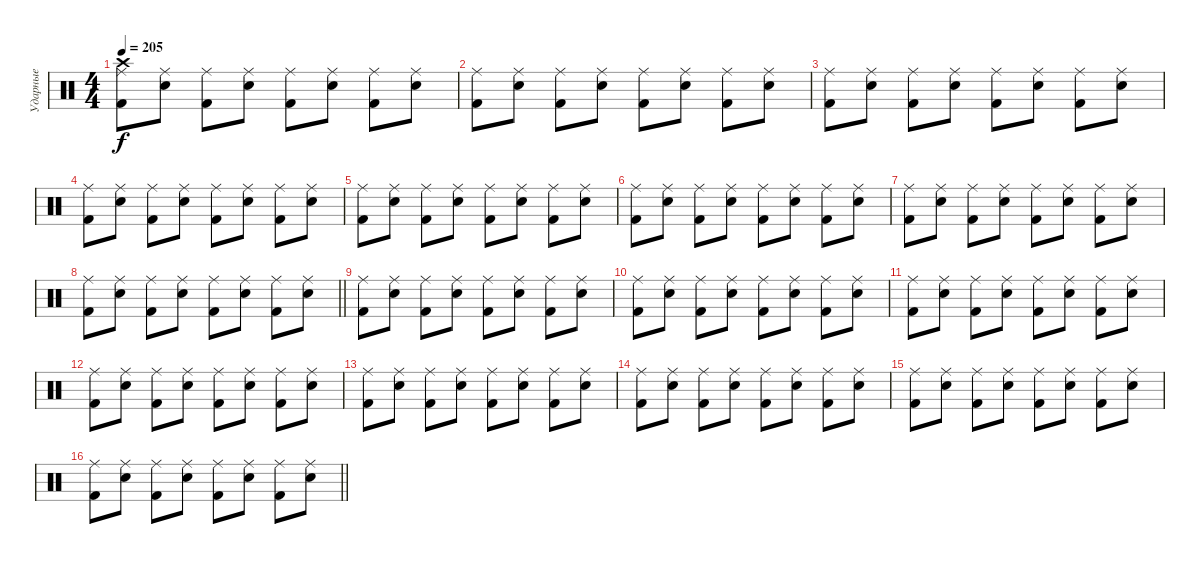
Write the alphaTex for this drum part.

\track ("Ударные" "Ударные") {instrument percussion}
\staff {score}
\articulation defaults
\ts (4 4)
\tempo 205
\clef neutral
\ks c
("Crash high (hit)" "Ride (middle)" "Kick (hit) 2").8{dy f} ("Ride (middle)" "Snare (hit) 2").8 ("Ride (middle)" "Kick (hit) 2").8 ("Ride (middle)" "Snare (hit) 2").8 ("Ride (middle)" "Kick (hit) 2").8 ("Ride (middle)" "Snare (hit) 2").8 ("Ride (middle)" "Kick (hit) 2").8 ("Ride (middle)" "Snare (hit) 2").8 |
("Ride (middle)" "Kick (hit) 2").8 ("Ride (middle)" "Snare (hit) 2").8 ("Ride (middle)" "Kick (hit) 2").8 ("Ride (middle)" "Snare (hit) 2").8 ("Ride (middle)" "Kick (hit) 2").8 ("Ride (middle)" "Snare (hit) 2").8 ("Ride (middle)" "Kick (hit) 2").8 ("Ride (middle)" "Snare (hit) 2").8 |
("Ride (middle)" "Kick (hit) 2").8 ("Ride (middle)" "Snare (hit) 2").8 ("Ride (middle)" "Kick (hit) 2").8 ("Ride (middle)" "Snare (hit) 2").8 ("Ride (middle)" "Kick (hit) 2").8 ("Ride (middle)" "Snare (hit) 2").8 ("Ride (middle)" "Kick (hit) 2").8 ("Ride (middle)" "Snare (hit) 2").8 |
("Ride (middle)" "Kick (hit) 2").8 ("Ride (middle)" "Snare (hit) 2").8 ("Ride (middle)" "Kick (hit) 2").8 ("Ride (middle)" "Snare (hit) 2").8 ("Ride (middle)" "Kick (hit) 2").8 ("Ride (middle)" "Snare (hit) 2").8 ("Ride (middle)" "Kick (hit) 2").8 ("Ride (middle)" "Snare (hit) 2").8 |
("Ride (middle)" "Kick (hit) 2").8 ("Ride (middle)" "Snare (hit) 2").8 ("Ride (middle)" "Kick (hit) 2").8 ("Ride (middle)" "Snare (hit) 2").8 ("Ride (middle)" "Kick (hit) 2").8 ("Ride (middle)" "Snare (hit) 2").8 ("Ride (middle)" "Kick (hit) 2").8 ("Ride (middle)" "Snare (hit) 2").8 |
("Ride (middle)" "Kick (hit) 2").8 ("Ride (middle)" "Snare (hit) 2").8 ("Ride (middle)" "Kick (hit) 2").8 ("Ride (middle)" "Snare (hit) 2").8 ("Ride (middle)" "Kick (hit) 2").8 ("Ride (middle)" "Snare (hit) 2").8 ("Ride (middle)" "Kick (hit) 2").8 ("Ride (middle)" "Snare (hit) 2").8 |
("Ride (middle)" "Kick (hit) 2").8 ("Ride (middle)" "Snare (hit) 2").8 ("Ride (middle)" "Kick (hit) 2").8 ("Ride (middle)" "Snare (hit) 2").8 ("Ride (middle)" "Kick (hit) 2").8 ("Ride (middle)" "Snare (hit) 2").8 ("Ride (middle)" "Kick (hit) 2").8 ("Ride (middle)" "Snare (hit) 2").8 |
\barLineRight lightlight
("Ride (middle)" "Kick (hit) 2").8 ("Ride (middle)" "Snare (hit) 2").8 ("Ride (middle)" "Kick (hit) 2").8 ("Ride (middle)" "Snare (hit) 2").8 ("Ride (middle)" "Kick (hit) 2").8 ("Ride (middle)" "Snare (hit) 2").8 ("Ride (middle)" "Kick (hit) 2").8 ("Ride (middle)" "Snare (hit) 2").8 |
("Ride (middle)" "Kick (hit) 2").8 ("Ride (middle)" "Snare (hit) 2").8 ("Ride (middle)" "Kick (hit) 2").8 ("Ride (middle)" "Snare (hit) 2").8 ("Ride (middle)" "Kick (hit) 2").8 ("Ride (middle)" "Snare (hit) 2").8 ("Ride (middle)" "Kick (hit) 2").8 ("Ride (middle)" "Snare (hit) 2").8 |
("Ride (middle)" "Kick (hit) 2").8 ("Ride (middle)" "Snare (hit) 2").8 ("Ride (middle)" "Kick (hit) 2").8 ("Ride (middle)" "Snare (hit) 2").8 ("Ride (middle)" "Kick (hit) 2").8 ("Ride (middle)" "Snare (hit) 2").8 ("Ride (middle)" "Kick (hit) 2").8 ("Ride (middle)" "Snare (hit) 2").8 |
("Ride (middle)" "Kick (hit) 2").8 ("Ride (middle)" "Snare (hit) 2").8 ("Ride (middle)" "Kick (hit) 2").8 ("Ride (middle)" "Snare (hit) 2").8 ("Ride (middle)" "Kick (hit) 2").8 ("Ride (middle)" "Snare (hit) 2").8 ("Ride (middle)" "Kick (hit) 2").8 ("Ride (middle)" "Snare (hit) 2").8 |
("Ride (middle)" "Kick (hit) 2").8 ("Ride (middle)" "Snare (hit) 2").8 ("Ride (middle)" "Kick (hit) 2").8 ("Ride (middle)" "Snare (hit) 2").8 ("Ride (middle)" "Kick (hit) 2").8 ("Ride (middle)" "Snare (hit) 2").8 ("Ride (middle)" "Kick (hit) 2").8 ("Ride (middle)" "Snare (hit) 2").8 |
("Ride (middle)" "Kick (hit) 2").8 ("Ride (middle)" "Snare (hit) 2").8 ("Ride (middle)" "Kick (hit) 2").8 ("Ride (middle)" "Snare (hit) 2").8 ("Ride (middle)" "Kick (hit) 2").8 ("Ride (middle)" "Snare (hit) 2").8 ("Ride (middle)" "Kick (hit) 2").8 ("Ride (middle)" "Snare (hit) 2").8 |
("Ride (middle)" "Kick (hit) 2").8 ("Ride (middle)" "Snare (hit) 2").8 ("Ride (middle)" "Kick (hit) 2").8 ("Ride (middle)" "Snare (hit) 2").8 ("Ride (middle)" "Kick (hit) 2").8 ("Ride (middle)" "Snare (hit) 2").8 ("Ride (middle)" "Kick (hit) 2").8 ("Ride (middle)" "Snare (hit) 2").8 |
("Ride (middle)" "Kick (hit) 2").8 ("Ride (middle)" "Snare (hit) 2").8 ("Ride (middle)" "Kick (hit) 2").8 ("Ride (middle)" "Snare (hit) 2").8 ("Ride (middle)" "Kick (hit) 2").8 ("Ride (middle)" "Snare (hit) 2").8 ("Ride (middle)" "Kick (hit) 2").8 ("Ride (middle)" "Snare (hit) 2").8 |
\barLineRight lightlight
("Ride (middle)" "Kick (hit) 2").8 ("Ride (middle)" "Snare (hit) 2").8 ("Ride (middle)" "Kick (hit) 2").8 ("Ride (middle)" "Snare (hit) 2").8 ("Ride (middle)" "Kick (hit) 2").8 ("Ride (middle)" "Snare (hit) 2").8 ("Ride (middle)" "Kick (hit) 2").8 ("Ride (middle)" "Snare (hit) 2").8
